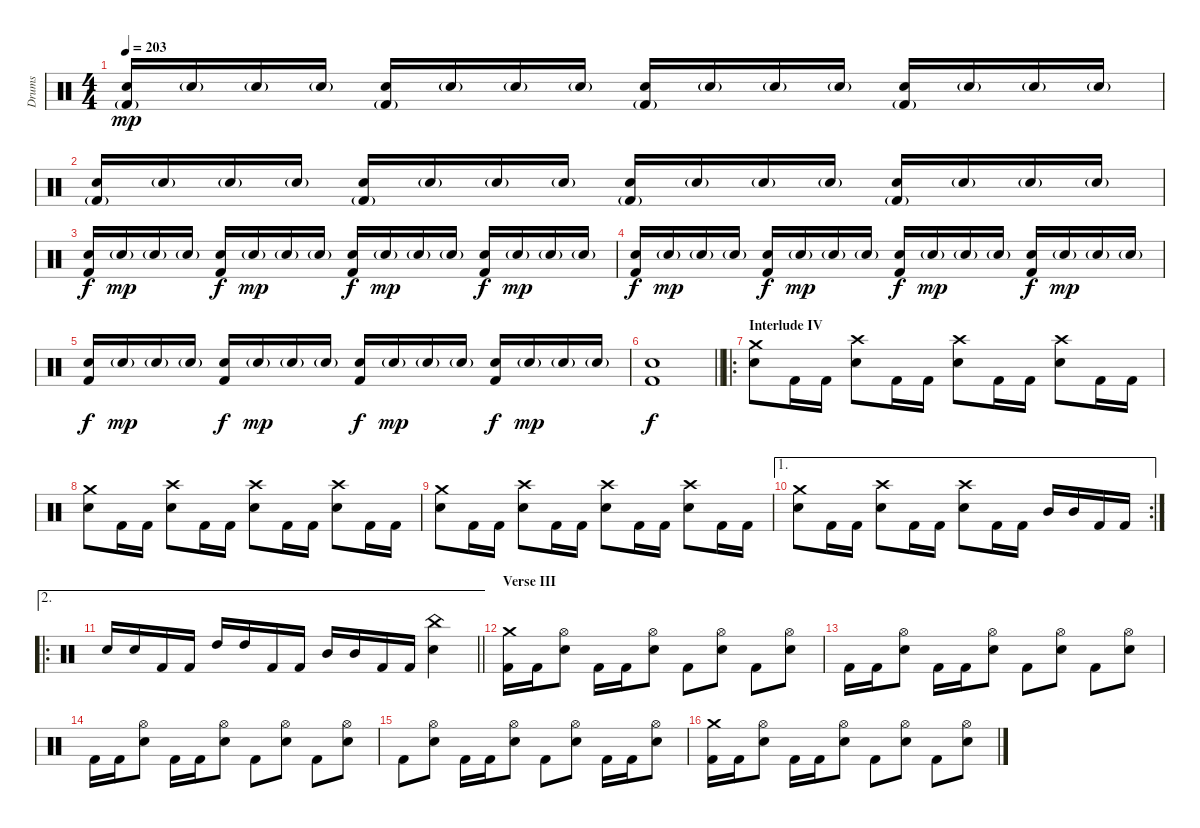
\track ("Drums" "Drums") {instrument percussion}
\staff {score}
\articulation defaults
\ts (4 4)
\tempo 203
\clef neutral
\ks c
("Electric Snare (hit)" "Kick (hit) 2"{g}).16{dy mp} "Electric Snare (hit)"{g}.16 "Electric Snare (hit)"{g}.16 "Electric Snare (hit)"{g}.16 ("Electric Snare (hit)" "Kick (hit) 2"{g}).16 "Electric Snare (hit)"{g}.16 "Electric Snare (hit)"{g}.16 "Electric Snare (hit)"{g}.16 ("Electric Snare (hit)" "Kick (hit) 2"{g}).16 "Electric Snare (hit)"{g}.16 "Electric Snare (hit)"{g}.16 "Electric Snare (hit)"{g}.16 ("Electric Snare (hit)" "Kick (hit) 2"{g}).16 "Electric Snare (hit)"{g}.16 "Electric Snare (hit)"{g}.16 "Electric Snare (hit)"{g}.16 |
("Electric Snare (hit)" "Kick (hit) 2"{g}).16 "Electric Snare (hit)"{g}.16 "Electric Snare (hit)"{g}.16 "Electric Snare (hit)"{g}.16 ("Electric Snare (hit)" "Kick (hit) 2"{g}).16 "Electric Snare (hit)"{g}.16 "Electric Snare (hit)"{g}.16 "Electric Snare (hit)"{g}.16 ("Electric Snare (hit)" "Kick (hit) 2"{g}).16 "Electric Snare (hit)"{g}.16 "Electric Snare (hit)"{g}.16 "Electric Snare (hit)"{g}.16 ("Electric Snare (hit)" "Kick (hit) 2"{g}).16 "Electric Snare (hit)"{g}.16 "Electric Snare (hit)"{g}.16 "Electric Snare (hit)"{g}.16 |
("Electric Snare (hit)" "Kick (hit) 2").16{dy f volume 16} "Electric Snare (hit)"{g}.16{dy mp} "Electric Snare (hit)"{g}.16 "Electric Snare (hit)"{g}.16 ("Electric Snare (hit)" "Kick (hit) 2").16{dy f} "Electric Snare (hit)"{g}.16{dy mp} "Electric Snare (hit)"{g}.16 "Electric Snare (hit)"{g}.16 ("Electric Snare (hit)" "Kick (hit) 2").16{dy f} "Electric Snare (hit)"{g}.16{dy mp} "Electric Snare (hit)"{g}.16 "Electric Snare (hit)"{g}.16 ("Electric Snare (hit)" "Kick (hit) 2").16{dy f} "Electric Snare (hit)"{g}.16{dy mp} "Electric Snare (hit)"{g}.16 "Electric Snare (hit)"{g}.16 |
("Electric Snare (hit)" "Kick (hit) 2").16{dy f} "Electric Snare (hit)"{g}.16{dy mp} "Electric Snare (hit)"{g}.16 "Electric Snare (hit)"{g}.16 ("Electric Snare (hit)" "Kick (hit) 2").16{dy f} "Electric Snare (hit)"{g}.16{dy mp} "Electric Snare (hit)"{g}.16 "Electric Snare (hit)"{g}.16 ("Electric Snare (hit)" "Kick (hit) 2").16{dy f} "Electric Snare (hit)"{g}.16{dy mp} "Electric Snare (hit)"{g}.16 "Electric Snare (hit)"{g}.16 ("Electric Snare (hit)" "Kick (hit) 2").16{dy f} "Electric Snare (hit)"{g}.16{dy mp} "Electric Snare (hit)"{g}.16 "Electric Snare (hit)"{g}.16 |
("Electric Snare (hit)" "Kick (hit) 2").16{dy f} "Electric Snare (hit)"{g}.16{dy mp} "Electric Snare (hit)"{g}.16 "Electric Snare (hit)"{g}.16 ("Electric Snare (hit)" "Kick (hit) 2").16{dy f} "Electric Snare (hit)"{g}.16{dy mp} "Electric Snare (hit)"{g}.16 "Electric Snare (hit)"{g}.16 ("Electric Snare (hit)" "Kick (hit) 2").16{dy f} "Electric Snare (hit)"{g}.16{dy mp} "Electric Snare (hit)"{g}.16 "Electric Snare (hit)"{g}.16 ("Electric Snare (hit)" "Kick (hit) 2").16{dy f} "Electric Snare (hit)"{g}.16{dy mp} "Electric Snare (hit)"{g}.16 "Electric Snare (hit)"{g}.16 |
\barLineRight lightlight
("Electric Snare (hit)" "Kick (hit) 2").1{dy f} |
\ro
\section ("" "Interlude IV")
("Crash medium (hit)" "Electric Snare (hit)").8{volume 16} "Kick (hit) 2".16 "Kick (hit) 2".16 ("Crash high (hit)" "Electric Snare (hit)").8 "Kick (hit) 2".16 "Kick (hit) 2".16 ("Crash high (hit)" "Electric Snare (hit)").8 "Kick (hit) 2".16 "Kick (hit) 2".16 ("Crash high (hit)" "Electric Snare (hit)").8 "Kick (hit) 2".16 "Kick (hit) 2".16 |
("Crash medium (hit)" "Electric Snare (hit)").8 "Kick (hit) 2".16 "Kick (hit) 2".16 ("Crash high (hit)" "Electric Snare (hit)").8 "Kick (hit) 2".16 "Kick (hit) 2".16 ("Crash high (hit)" "Electric Snare (hit)").8 "Kick (hit) 2".16 "Kick (hit) 2".16 ("Crash high (hit)" "Electric Snare (hit)").8 "Kick (hit) 2".16 "Kick (hit) 2".16 |
("Crash medium (hit)" "Electric Snare (hit)").8 "Kick (hit) 2".16 "Kick (hit) 2".16 ("Crash high (hit)" "Electric Snare (hit)").8 "Kick (hit) 2".16 "Kick (hit) 2".16 ("Crash high (hit)" "Electric Snare (hit)").8 "Kick (hit) 2".16 "Kick (hit) 2".16 ("Crash high (hit)" "Electric Snare (hit)").8 "Kick (hit) 2".16 "Kick (hit) 2".16 |
\ae 1
\rc 2
("Crash medium (hit)" "Electric Snare (hit)").8 "Kick (hit) 2".16 "Kick (hit) 2".16 ("Crash high (hit)" "Electric Snare (hit)").8 "Kick (hit) 2".16 "Kick (hit) 2".16 ("Crash high (hit)" "Electric Snare (hit)").8 "Kick (hit) 2".16 "Kick (hit) 2".16 "Mid Tom (hit)".16 "Mid Tom (hit)".16 "Kick (hit) 2".16 "Kick (hit) 2".16 |
\ae 2
\ro
\barLineRight lightlight "Electric Snare (hit)".16 "Electric Snare (hit)".16 "Kick (hit) 2".16 "Kick (hit) 2".16 "High Tom (hit)".16 "High Tom (hit)".16 "Kick (hit) 2".16 "Kick (hit) 2".16 "Mid Tom (hit)".16 "Mid Tom (hit)".16 "Kick (hit) 2".16 "Kick (hit) 2".16
("China (hit)" "Electric Snare (hit)").4 |
\section ("" "Verse III")
("Crash medium (hit)" "Kick (hit) 2").16 "Kick (hit) 2".16 ("Hi-Hat (open)" "Electric Snare (hit)").8 "Kick (hit) 2".16 "Kick (hit) 2".16 ("Hi-Hat (open)" "Electric Snare (hit)").8 "Kick (hit) 2".8 ("Hi-Hat (open)" "Electric Snare (hit)").8 "Kick (hit) 2".8 ("Hi-Hat (open)" "Electric Snare (hit)").8 |
"Kick (hit) 2".16 "Kick (hit) 2".16 ("Hi-Hat (open)" "Electric Snare (hit)").8 "Kick (hit) 2".16 "Kick (hit) 2".16 ("Hi-Hat (open)" "Electric Snare (hit)").8 "Kick (hit) 2".8 ("Hi-Hat (open)" "Electric Snare (hit)").8 "Kick (hit) 2".8 ("Hi-Hat (open)" "Electric Snare (hit)").8 |
"Kick (hit) 2".16 "Kick (hit) 2".16 ("Hi-Hat (open)" "Electric Snare (hit)").8 "Kick (hit) 2".16 "Kick (hit) 2".16 ("Hi-Hat (open)" "Electric Snare (hit)").8 "Kick (hit) 2".8 ("Hi-Hat (open)" "Electric Snare (hit)").8 "Kick (hit) 2".8 ("Hi-Hat (open)" "Electric Snare (hit)").8 |
"Kick (hit) 2".8 ("Hi-Hat (open)" "Electric Snare (hit)").8 "Kick (hit) 2".16 "Kick (hit) 2".16 ("Hi-Hat (open)" "Electric Snare (hit)").8 "Kick (hit) 2".8 ("Hi-Hat (open)" "Electric Snare (hit)").8 "Kick (hit) 2".16 "Kick (hit) 2".16 ("Hi-Hat (open)" "Electric Snare (hit)").8 |
("Crash medium (hit)" "Kick (hit) 2").16 "Kick (hit) 2".16 ("Hi-Hat (open)" "Electric Snare (hit)").8 "Kick (hit) 2".16 "Kick (hit) 2".16 ("Hi-Hat (open)" "Electric Snare (hit)").8 "Kick (hit) 2".8 ("Hi-Hat (open)" "Electric Snare (hit)").8 "Kick (hit) 2".8 ("Hi-Hat (open)" "Electric Snare (hit)").8
